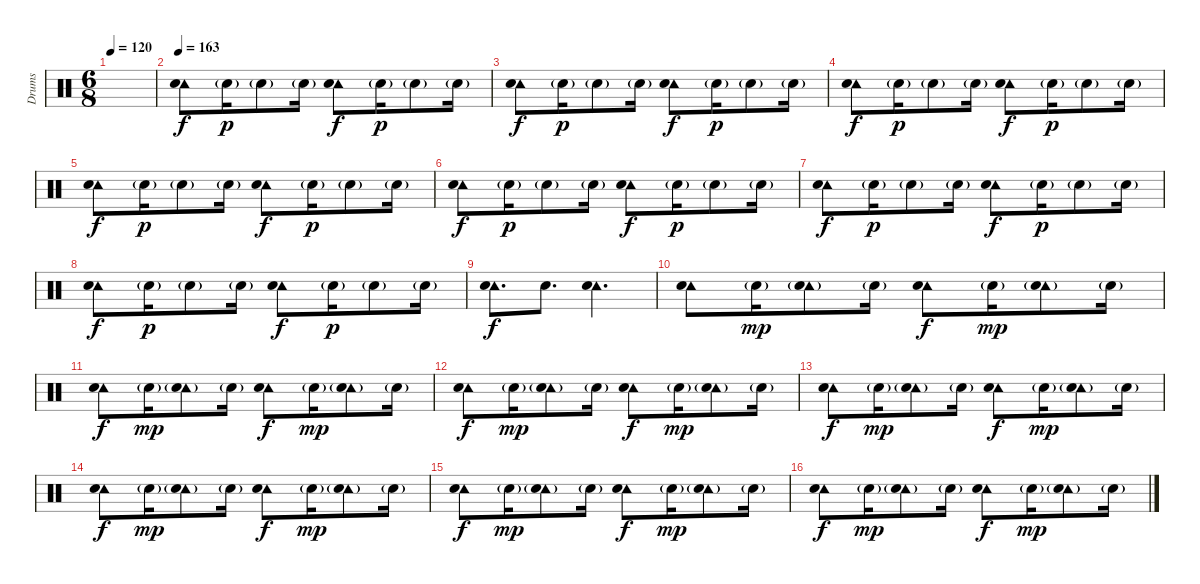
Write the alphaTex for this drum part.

\track ("Drums" "Drums") {instrument percussion}
\staff {score}
\articulation defaults
\ts (6 8)
\tempo 120
\clef neutral
\ks c
|
\tempo 163
("Tambourine (hit)" "Hand Clap (hit)").8 "Hand Clap (hit)"{g}.16{dy p} "Hand Clap (hit)"{g}.8 "Hand Clap (hit)"{g}.16 ("Tambourine (hit)" "Hand Clap (hit)").8{dy f} "Hand Clap (hit)"{g}.16{dy p} "Hand Clap (hit)"{g}.8 "Hand Clap (hit)"{g}.16 |
("Tambourine (hit)" "Hand Clap (hit)").8{dy f} "Hand Clap (hit)"{g}.16{dy p} "Hand Clap (hit)"{g}.8 "Hand Clap (hit)"{g}.16 ("Tambourine (hit)" "Hand Clap (hit)").8{dy f} "Hand Clap (hit)"{g}.16{dy p} "Hand Clap (hit)"{g}.8 "Hand Clap (hit)"{g}.16 |
("Tambourine (hit)" "Hand Clap (hit)").8{dy f} "Hand Clap (hit)"{g}.16{dy p} "Hand Clap (hit)"{g}.8 "Hand Clap (hit)"{g}.16 ("Tambourine (hit)" "Hand Clap (hit)").8{dy f} "Hand Clap (hit)"{g}.16{dy p} "Hand Clap (hit)"{g}.8 "Hand Clap (hit)"{g}.16 |
("Tambourine (hit)" "Hand Clap (hit)").8{dy f} "Hand Clap (hit)"{g}.16{dy p} "Hand Clap (hit)"{g}.8 "Hand Clap (hit)"{g}.16 ("Tambourine (hit)" "Hand Clap (hit)").8{dy f} "Hand Clap (hit)"{g}.16{dy p} "Hand Clap (hit)"{g}.8 "Hand Clap (hit)"{g}.16 |
("Tambourine (hit)" "Hand Clap (hit)").8{dy f} "Hand Clap (hit)"{g}.16{dy p} "Hand Clap (hit)"{g}.8 "Hand Clap (hit)"{g}.16 ("Tambourine (hit)" "Hand Clap (hit)").8{dy f} "Hand Clap (hit)"{g}.16{dy p} "Hand Clap (hit)"{g}.8 "Hand Clap (hit)"{g}.16 |
("Tambourine (hit)" "Hand Clap (hit)").8{dy f} "Hand Clap (hit)"{g}.16{dy p} "Hand Clap (hit)"{g}.8 "Hand Clap (hit)"{g}.16 ("Tambourine (hit)" "Hand Clap (hit)").8{dy f} "Hand Clap (hit)"{g}.16{dy p} "Hand Clap (hit)"{g}.8 "Hand Clap (hit)"{g}.16 |
("Tambourine (hit)" "Hand Clap (hit)").8{dy f} "Hand Clap (hit)"{g}.16{dy p} "Hand Clap (hit)"{g}.8 "Hand Clap (hit)"{g}.16 ("Tambourine (hit)" "Hand Clap (hit)").8{dy f} "Hand Clap (hit)"{g}.16{dy p} "Hand Clap (hit)"{g}.8 "Hand Clap (hit)"{g}.16 |
("Tambourine (hit)" "Hand Clap (hit)").8{d dy f} "Hand Clap (hit)".8{d} ("Tambourine (hit)" "Hand Clap (hit)").4{d} |
("Tambourine (hit)" "Hand Clap (hit)").8 "Hand Clap (hit)"{g}.16{dy mp} ("Tambourine (hit)" "Hand Clap (hit)"{g}).8 "Hand Clap (hit)"{g}.16 ("Tambourine (hit)" "Hand Clap (hit)").8{dy f} "Hand Clap (hit)"{g}.16{dy mp} ("Tambourine (hit)" "Hand Clap (hit)"{g}).8 "Hand Clap (hit)"{g}.16 |
("Tambourine (hit)" "Hand Clap (hit)").8{dy f} "Hand Clap (hit)"{g}.16{dy mp} ("Tambourine (hit)" "Hand Clap (hit)"{g}).8 "Hand Clap (hit)"{g}.16 ("Tambourine (hit)" "Hand Clap (hit)").8{dy f} "Hand Clap (hit)"{g}.16{dy mp} ("Tambourine (hit)" "Hand Clap (hit)"{g}).8 "Hand Clap (hit)"{g}.16 |
("Tambourine (hit)" "Hand Clap (hit)").8{dy f} "Hand Clap (hit)"{g}.16{dy mp} ("Tambourine (hit)" "Hand Clap (hit)"{g}).8 "Hand Clap (hit)"{g}.16 ("Tambourine (hit)" "Hand Clap (hit)").8{dy f} "Hand Clap (hit)"{g}.16{dy mp} ("Tambourine (hit)" "Hand Clap (hit)"{g}).8 "Hand Clap (hit)"{g}.16 |
("Tambourine (hit)" "Hand Clap (hit)").8{dy f} "Hand Clap (hit)"{g}.16{dy mp} ("Tambourine (hit)" "Hand Clap (hit)"{g}).8 "Hand Clap (hit)"{g}.16 ("Tambourine (hit)" "Hand Clap (hit)").8{dy f} "Hand Clap (hit)"{g}.16{dy mp} ("Tambourine (hit)" "Hand Clap (hit)"{g}).8 "Hand Clap (hit)"{g}.16 |
("Tambourine (hit)" "Hand Clap (hit)").8{dy f} "Hand Clap (hit)"{g}.16{dy mp} ("Tambourine (hit)" "Hand Clap (hit)"{g}).8 "Hand Clap (hit)"{g}.16 ("Tambourine (hit)" "Hand Clap (hit)").8{dy f} "Hand Clap (hit)"{g}.16{dy mp} ("Tambourine (hit)" "Hand Clap (hit)"{g}).8 "Hand Clap (hit)"{g}.16 |
("Tambourine (hit)" "Hand Clap (hit)").8{dy f} "Hand Clap (hit)"{g}.16{dy mp} ("Tambourine (hit)" "Hand Clap (hit)"{g}).8 "Hand Clap (hit)"{g}.16 ("Tambourine (hit)" "Hand Clap (hit)").8{dy f} "Hand Clap (hit)"{g}.16{dy mp} ("Tambourine (hit)" "Hand Clap (hit)"{g}).8 "Hand Clap (hit)"{g}.16 |
("Tambourine (hit)" "Hand Clap (hit)").8{dy f} "Hand Clap (hit)"{g}.16{dy mp} ("Tambourine (hit)" "Hand Clap (hit)"{g}).8 "Hand Clap (hit)"{g}.16 ("Tambourine (hit)" "Hand Clap (hit)").8{dy f} "Hand Clap (hit)"{g}.16{dy mp} ("Tambourine (hit)" "Hand Clap (hit)"{g}).8 "Hand Clap (hit)"{g}.16
